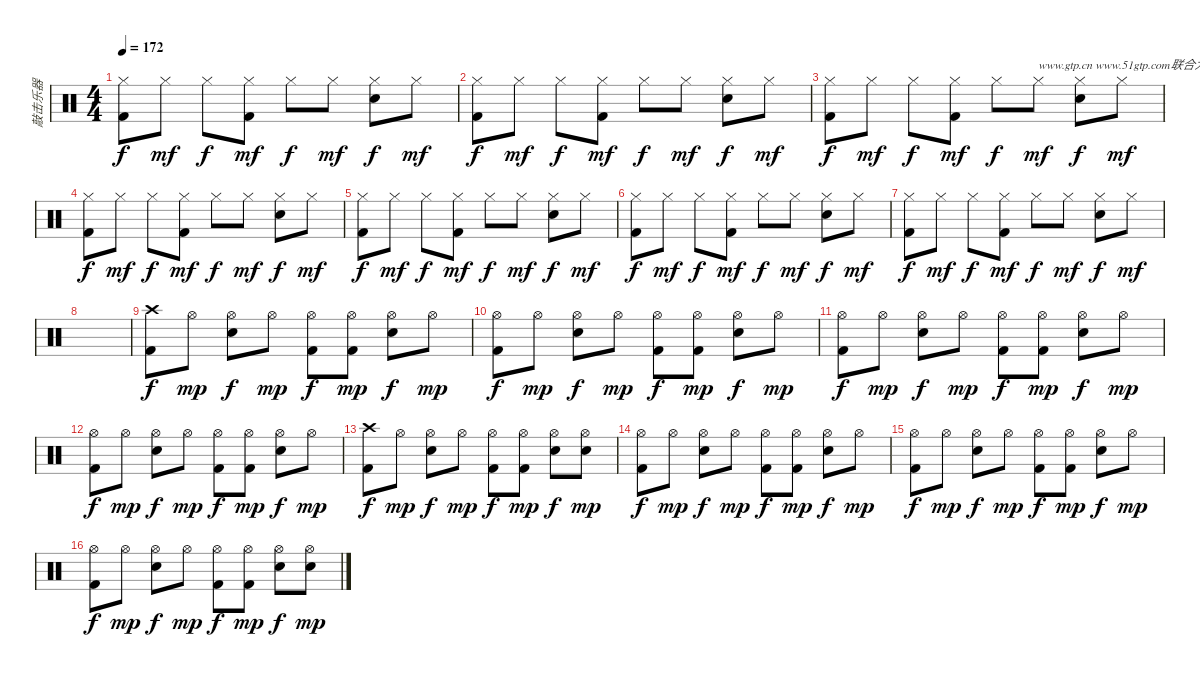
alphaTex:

\track ("敲击乐器" "敲击乐器") {instrument percussion}
\staff {score}
\articulation defaults
\ts (4 4)
\tempo 172
\clef neutral
\ks c
("Hi-Hat (closed)" "Kick (hit) 2").8{dy f} "Hi-Hat (closed)".8{dy mf} "Hi-Hat (closed)".8{dy f} ("Hi-Hat (closed)" "Kick (hit) 2").8{dy mf} "Hi-Hat (closed)".8{dy f} "Hi-Hat (closed)".8{dy mf} ("Hi-Hat (closed)" "Electric Snare (hit)").8{dy f} "Hi-Hat (closed)".8{dy mf} |
("Hi-Hat (closed)" "Kick (hit) 2").8{dy f} "Hi-Hat (closed)".8{dy mf} "Hi-Hat (closed)".8{dy f} ("Hi-Hat (closed)" "Kick (hit) 2").8{dy mf} "Hi-Hat (closed)".8{dy f} "Hi-Hat (closed)".8{dy mf} ("Hi-Hat (closed)" "Electric Snare (hit)").8{dy f} "Hi-Hat (closed)".8{dy mf} |
("Hi-Hat (closed)" "Kick (hit) 2").8{dy f} "Hi-Hat (closed)".8{dy mf} "Hi-Hat (closed)".8{dy f} ("Hi-Hat (closed)" "Kick (hit) 2").8{dy mf} "Hi-Hat (closed)".8{dy f} "Hi-Hat (closed)".8{txt "www.gtp.cn www.51gtp.com联合为您提供优秀的GTP!" dy mf} ("Hi-Hat (closed)" "Electric Snare (hit)").8{dy f} "Hi-Hat (closed)".8{dy mf} |
("Hi-Hat (closed)" "Kick (hit) 2").8{dy f} "Hi-Hat (closed)".8{dy mf} "Hi-Hat (closed)".8{dy f} ("Hi-Hat (closed)" "Kick (hit) 2").8{dy mf} "Hi-Hat (closed)".8{dy f} "Hi-Hat (closed)".8{dy mf} ("Hi-Hat (closed)" "Electric Snare (hit)").8{dy f} "Hi-Hat (closed)".8{dy mf} |
("Hi-Hat (closed)" "Kick (hit) 2").8{dy f} "Hi-Hat (closed)".8{dy mf} "Hi-Hat (closed)".8{dy f} ("Hi-Hat (closed)" "Kick (hit) 2").8{dy mf} "Hi-Hat (closed)".8{dy f} "Hi-Hat (closed)".8{dy mf} ("Hi-Hat (closed)" "Electric Snare (hit)").8{dy f} "Hi-Hat (closed)".8{dy mf} |
("Hi-Hat (closed)" "Kick (hit) 2").8{dy f} "Hi-Hat (closed)".8{dy mf} "Hi-Hat (closed)".8{dy f} ("Hi-Hat (closed)" "Kick (hit) 2").8{dy mf} "Hi-Hat (closed)".8{dy f} "Hi-Hat (closed)".8{dy mf} ("Hi-Hat (closed)" "Electric Snare (hit)").8{dy f} "Hi-Hat (closed)".8{dy mf} |
("Hi-Hat (closed)" "Kick (hit) 2").8{dy f} "Hi-Hat (closed)".8{dy mf} "Hi-Hat (closed)".8{dy f} ("Hi-Hat (closed)" "Kick (hit) 2").8{dy mf} "Hi-Hat (closed)".8{dy f} "Hi-Hat (closed)".8{dy mf} ("Hi-Hat (closed)" "Electric Snare (hit)").8{dy f} "Hi-Hat (closed)".8{dy mf} |
|
("Crash high (hit)" "Kick (hit) 2").8{dy f} "Hi-Hat (open)".8{dy mp} ("Hi-Hat (open)" "Electric Snare (hit)").8{dy f} "Hi-Hat (open)".8{dy mp} ("Hi-Hat (open)" "Kick (hit) 2").8{dy f} ("Hi-Hat (open)" "Kick (hit) 2").8{dy mp} ("Hi-Hat (open)" "Electric Snare (hit)").8{dy f} "Hi-Hat (open)".8{dy mp} |
("Hi-Hat (open)" "Kick (hit) 2").8{dy f} "Hi-Hat (open)".8{dy mp} ("Hi-Hat (open)" "Electric Snare (hit)").8{dy f} "Hi-Hat (open)".8{dy mp} ("Hi-Hat (open)" "Kick (hit) 2").8{dy f} ("Hi-Hat (open)" "Kick (hit) 2").8{dy mp} ("Hi-Hat (open)" "Electric Snare (hit)").8{dy f} "Hi-Hat (open)".8{dy mp} |
("Hi-Hat (open)" "Kick (hit) 2").8{dy f} "Hi-Hat (open)".8{dy mp} ("Hi-Hat (open)" "Electric Snare (hit)").8{dy f} "Hi-Hat (open)".8{dy mp} ("Hi-Hat (open)" "Kick (hit) 2").8{dy f} ("Hi-Hat (open)" "Kick (hit) 2").8{dy mp} ("Hi-Hat (open)" "Electric Snare (hit)").8{dy f} "Hi-Hat (open)".8{dy mp} |
("Hi-Hat (open)" "Kick (hit) 2").8{dy f} "Hi-Hat (open)".8{dy mp} ("Hi-Hat (open)" "Electric Snare (hit)").8{dy f} "Hi-Hat (open)".8{dy mp} ("Hi-Hat (open)" "Kick (hit) 2").8{dy f} ("Hi-Hat (open)" "Kick (hit) 2").8{dy mp} ("Hi-Hat (open)" "Electric Snare (hit)").8{dy f} "Hi-Hat (open)".8{dy mp} |
("Crash high (hit)" "Kick (hit) 2").8{dy f} "Hi-Hat (open)".8{dy mp} ("Hi-Hat (open)" "Electric Snare (hit)").8{dy f} "Hi-Hat (open)".8{dy mp} ("Hi-Hat (open)" "Kick (hit) 2").8{dy f} ("Hi-Hat (open)" "Kick (hit) 2").8{dy mp} ("Hi-Hat (open)" "Electric Snare (hit)").8{dy f} ("Hi-Hat (open)" "Electric Snare (hit)").8{dy mp} |
("Hi-Hat (open)" "Kick (hit) 2").8{dy f} "Hi-Hat (open)".8{dy mp} ("Hi-Hat (open)" "Electric Snare (hit)").8{dy f} "Hi-Hat (open)".8{dy mp} ("Hi-Hat (open)" "Kick (hit) 2").8{dy f} ("Hi-Hat (open)" "Kick (hit) 2").8{dy mp} ("Hi-Hat (open)" "Electric Snare (hit)").8{dy f} "Hi-Hat (open)".8{dy mp} |
("Hi-Hat (open)" "Kick (hit) 2").8{dy f} "Hi-Hat (open)".8{dy mp} ("Hi-Hat (open)" "Electric Snare (hit)").8{dy f} "Hi-Hat (open)".8{dy mp} ("Hi-Hat (open)" "Kick (hit) 2").8{dy f} ("Hi-Hat (open)" "Kick (hit) 2").8{dy mp} ("Hi-Hat (open)" "Electric Snare (hit)").8{dy f} "Hi-Hat (open)".8{dy mp} |
("Hi-Hat (open)" "Kick (hit) 2").8{dy f} "Hi-Hat (open)".8{dy mp} ("Hi-Hat (open)" "Electric Snare (hit)").8{dy f} "Hi-Hat (open)".8{dy mp} ("Hi-Hat (open)" "Kick (hit) 2").8{dy f} ("Hi-Hat (open)" "Kick (hit) 2").8{dy mp} ("Hi-Hat (open)" "Electric Snare (hit)").8{dy f} ("Hi-Hat (open)" "Electric Snare (hit)").8{dy mp}
